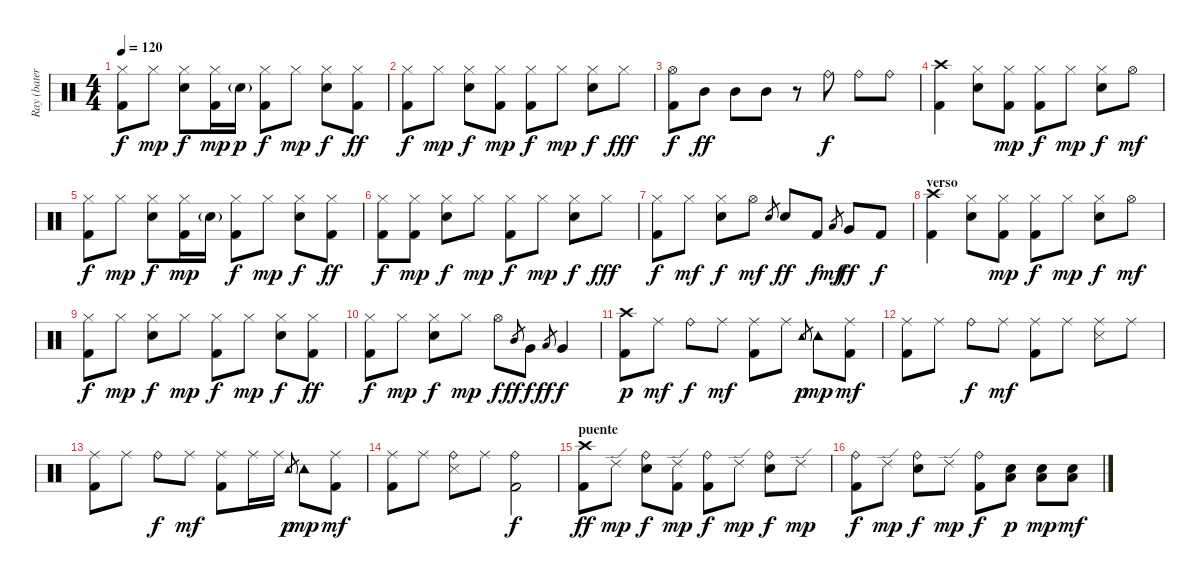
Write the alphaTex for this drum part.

\track ("Ray (batería)" "Ray (bater") {instrument percussion}
\staff {score}
\articulation defaults
\ts (4 4)
\tempo 120
\clef neutral
\ks c
("Hi-Hat (closed)" "Kick (hit) 2").8{dy f} "Hi-Hat (closed)".8{dy mp} ("Hi-Hat (closed)" "Snare (hit) 2").8{dy f} ("Hi-Hat (closed)" "Kick (hit) 2").16{dy mp} "Snare (hit) 2"{g}.16{dy p} ("Hi-Hat (closed)" "Kick (hit) 2").8{dy f} "Hi-Hat (closed)".8{dy mp} ("Hi-Hat (closed)" "Snare (hit) 2").8{dy f} ("Hi-Hat (closed)" "Kick (hit) 2").8{dy ff} |
("Hi-Hat (closed)" "Kick (hit) 2").8{dy f} "Hi-Hat (closed)".8{dy mp} ("Hi-Hat (closed)" "Snare (hit) 2").8{dy f} ("Hi-Hat (closed)" "Kick (hit) 2").8{dy mp} ("Hi-Hat (closed)" "Kick (hit) 2").8{dy f} "Hi-Hat (closed)".8{dy mp} ("Hi-Hat (closed)" "Snare (hit) 2").8{dy f} "Hi-Hat (closed)".8{dy fff} |
("Hi-Hat (open)" "Kick (hit) 2").8{dy f} "Mid Tom (hit)".8{dy ff} "Mid Tom (hit)".8 "Mid Tom (hit)".8 r.8 "Ride (bell)".8{dy f} "Ride (bell)".8 "Ride (bell)".8 |
\section ("" "")
("Crash high (hit)" "Kick (hit) 2").4 ("Hi-Hat (closed)" "Snare (hit) 2").8 ("Hi-Hat (closed)" "Kick (hit) 2").8{dy mp} ("Hi-Hat (closed)" "Kick (hit) 2").8{dy f} "Hi-Hat (closed)".8{dy mp} ("Hi-Hat (closed)" "Snare (hit) 2").8{dy f} "Hi-Hat (open)".8{dy mf} |
("Hi-Hat (closed)" "Kick (hit) 2").8{dy f} "Hi-Hat (closed)".8{dy mp} ("Hi-Hat (closed)" "Snare (hit) 2").8{dy f} ("Hi-Hat (closed)" "Kick (hit) 2").16{dy mp} "Snare (hit) 2"{g}.16 ("Hi-Hat (closed)" "Kick (hit) 2").8{dy f} "Hi-Hat (closed)".8{dy mp} ("Hi-Hat (closed)" "Snare (hit) 2").8{dy f} ("Hi-Hat (closed)" "Kick (hit) 2").8{dy ff} |
("Hi-Hat (closed)" "Kick (hit) 2").8{dy f} ("Hi-Hat (closed)" "Kick (hit) 2").8{dy mp} ("Hi-Hat (closed)" "Snare (hit) 2").8{dy f} "Hi-Hat (closed)".8{dy mp} ("Hi-Hat (closed)" "Kick (hit) 2").8{dy f} "Hi-Hat (closed)".8{dy mp} ("Hi-Hat (closed)" "Snare (hit) 2").8{dy f} "Hi-Hat (closed)".8{dy fff} |
("Hi-Hat (closed)" "Kick (hit) 2").8{dy f} "Hi-Hat (closed)".8{dy mf} ("Hi-Hat (closed)" "Snare (hit) 2").8{dy f} "Hi-Hat (open)".8{dy mf} "Snare (hit) 2".8{gr} "Snare (hit) 2".8{dy ff} "Kick (hit) 2".8{dy f} "Low Floor Tom (hit)".8{gr dy mf} "Very Low Tom (hit)".8{dy ff} "Kick (hit) 2".8{dy f} |
\section ("" "verso")
("Crash high (hit)" "Kick (hit) 2").4 ("Hi-Hat (closed)" "Snare (hit) 2").8 ("Hi-Hat (closed)" "Kick (hit) 2").8{dy mp} ("Hi-Hat (closed)" "Kick (hit) 2").8{dy f} "Hi-Hat (closed)".8{dy mp} ("Hi-Hat (closed)" "Snare (hit) 2").8{dy f} "Hi-Hat (open)".8{dy mf} |
("Hi-Hat (closed)" "Kick (hit) 2").8{dy f} "Hi-Hat (closed)".8{dy mp} ("Hi-Hat (closed)" "Snare (hit) 2").8{dy f} "Hi-Hat (closed)".8{dy mp} ("Hi-Hat (closed)" "Kick (hit) 2").8{dy f} "Hi-Hat (closed)".8{dy mp} ("Hi-Hat (closed)" "Snare (hit) 2").8{dy f} ("Hi-Hat (closed)" "Kick (hit) 2").8{dy ff} |
("Hi-Hat (closed)" "Kick (hit) 2").8{dy f} "Hi-Hat (closed)".8{dy mp} ("Hi-Hat (closed)" "Snare (hit) 2").8{dy f} "Hi-Hat (closed)".8{dy mp} "Hi-Hat (open)".8{dy f} "Mid Tom (hit)".8{gr dy ff} "Very Low Tom (hit)".8{dy f} "Low Tom (hit)".8{gr dy ff} "Very Low Tom (hit)".4{dy f} |
("Crash high (hit)" "Kick (hit) 2").8{dy p} "Ride (middle)".8{dy mf} "Ride (bell)".8{dy f} "Ride (middle)".8{dy mf} ("Ride (middle)" "Kick (hit) 2").8 "Ride (middle)".8 "Tambourine (hit)".8{gr dy p} "Tambourine (hit)".8{dy mp} ("Ride (middle)" "Kick (hit) 2").8{dy mf} |
("Ride (middle)" "Kick (hit) 2").8 "Ride (middle)".8 "Ride (bell)".8{dy f} "Ride (middle)".8{dy mf} ("Ride (middle)" "Kick (hit) 2").8 "Ride (middle)".8 ("Ride (middle)" "Snare (side stick) 3").8 "Ride (middle)".8 |
("Ride (middle)" "Kick (hit) 2").8 "Ride (middle)".8 "Ride (bell)".8{dy f} "Ride (middle)".8{dy mf} ("Ride (middle)" "Kick (hit) 2").8 "Ride (middle)".16 "Ride (middle)".16 "Tambourine (hit)".8{gr dy p} "Tambourine (hit)".8{dy mp} ("Ride (middle)" "Kick (hit) 2").8{dy mf} |
("Ride (middle)" "Kick (hit) 2").8 "Ride (middle)".8 ("Ride (bell)" "Snare (side stick) 3").8 "Ride (middle)".8 ("Ride (bell)" "Kick (hit) 2").2{dy f} |
\section ("" "puente")
("Crash high (hit)" "Kick (hit) 2").8{dy ff} "Ride (edge) 2".8{dy mp} ("Ride (bell)" "Snare (hit) 2").8{dy f} ("Ride (edge) 2" "Kick (hit) 2").8{dy mp} ("Ride (bell)" "Kick (hit) 2").8{dy f} "Ride (edge) 2".8{dy mp} ("Ride (bell)" "Snare (hit) 2").8{dy f} "Ride (edge) 2".8{dy mp} |
("Ride (bell)" "Kick (hit) 2").8{dy f} "Ride (edge) 2".8{dy mp} ("Ride (bell)" "Snare (hit) 2").8{dy f} "Ride (edge) 2".8{dy mp} ("Ride (bell)" "Kick (hit) 2").8{dy f} ("Snare (hit) 2" "Low Tom (hit)").8{dy p} ("Snare (hit) 2" "Low Tom (hit)").8{dy mp} ("Snare (hit) 2" "Low Tom (hit)").8{dy mf}
